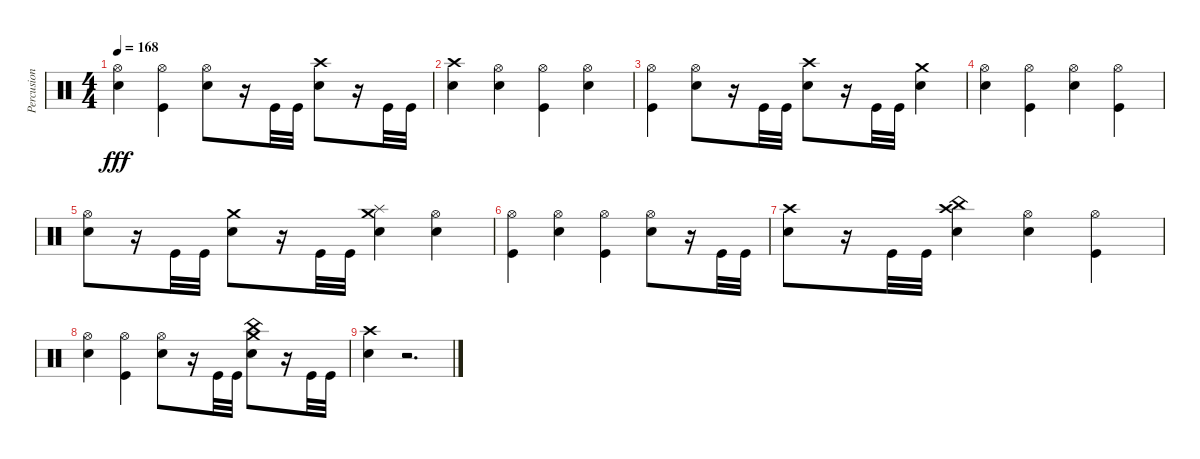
\track ("Percusion" "Percusion") {instrument percussion}
\staff {score}
\articulation defaults
\ts (4 4)
\tempo 168
\clef neutral
\ks c
("Hi-Hat (open)" "Snare (hit) 2").4{dy fff} ("Hi-Hat (open)" "Kick (hit)").4 ("Hi-Hat (open)" "Snare (hit) 2").8 r.16 "Kick (hit)".32 "Kick (hit)".32 ("Crash high (hit)" "Snare (hit) 2").8 r.16 "Kick (hit)".32 "Kick (hit)".32 |
("Crash high (hit)" "Snare (hit) 2").4 ("Hi-Hat (open)" "Snare (hit) 2").4 ("Hi-Hat (open)" "Kick (hit)").4 ("Hi-Hat (open)" "Snare (hit) 2").4 |
("Hi-Hat (open)" "Kick (hit)").4 ("Hi-Hat (open)" "Snare (hit) 2").8 r.16 "Kick (hit)".32 "Kick (hit)".32 ("Crash high (hit)" "Snare (hit) 2").8 r.16 "Kick (hit)".32 "Kick (hit)".32 ("Crash medium (hit)" "Snare (hit) 2").4 |
("Hi-Hat (open)" "Snare (hit) 2").4 ("Hi-Hat (open)" "Kick (hit)").4 ("Hi-Hat (open)" "Snare (hit) 2").4 ("Hi-Hat (open)" "Kick (hit)").4 |
("Hi-Hat (open)" "Snare (hit) 2").8 r.16 "Kick (hit)".32 "Kick (hit)".32 ("Crash medium (hit)" "Snare (hit) 2").8 r.16 "Kick (hit)".32 "Kick (hit)".32 ("Crash medium (hit)" "Splash (hit)" "Snare (hit) 2").4 ("Hi-Hat (open)" "Snare (hit) 2").4 |
("Hi-Hat (open)" "Kick (hit)").4 ("Hi-Hat (open)" "Snare (hit) 2").4 ("Hi-Hat (open)" "Kick (hit)").4 ("Hi-Hat (open)" "Snare (hit) 2").8 r.16 "Kick (hit)".32 "Kick (hit)".32 |
("Crash high (hit)" "Snare (hit) 2").8 r.16 "Kick (hit)".32 "Kick (hit)".32 ("Crash high (hit)" "China (hit)" "Snare (hit) 2").4 ("Hi-Hat (open)" "Snare (hit) 2").4 ("Hi-Hat (open)" "Kick (hit)").4 |
("Hi-Hat (open)" "Snare (hit) 2").4 ("Hi-Hat (open)" "Kick (hit)").4 ("Hi-Hat (open)" "Snare (hit) 2").8 r.16 "Kick (hit)".32 "Kick (hit)".32 ("Crash medium (hit)" "China (hit)" "Snare (hit) 2").8 r.16 "Kick (hit)".32 "Kick (hit)".32 |
("Crash high (hit)" "Snare (hit) 2").4 r.2{d}
